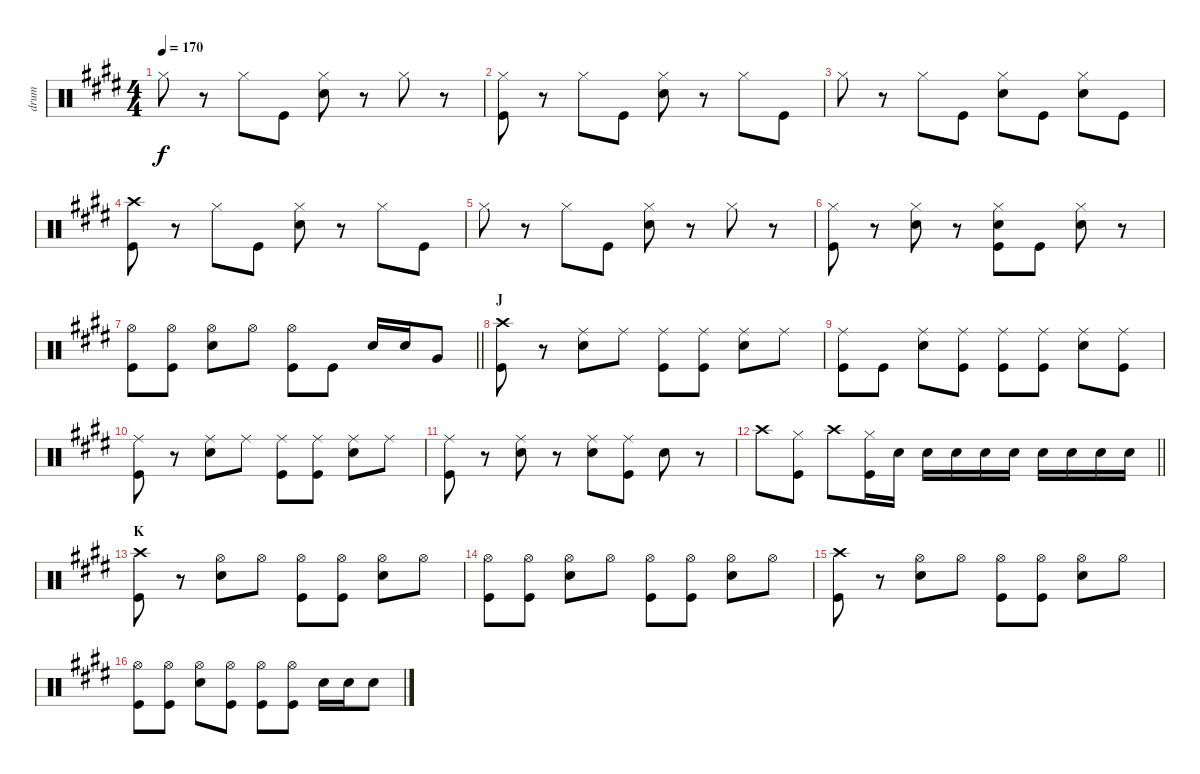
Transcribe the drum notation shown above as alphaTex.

\track ("drum" "drum") {instrument percussion}
\staff {score}
\articulation defaults
\ts (4 4)
\tempo 170
\clef neutral
\ks e "Hi-Hat (closed)".8{dy f}
r.8 "Hi-Hat (closed)".8 "Kick (hit)".8 ("Hi-Hat (closed)" "Snare (hit) 2").8 r.8 "Hi-Hat (closed)".8 r.8 |
("Hi-Hat (closed)" "Kick (hit)").8 r.8 "Hi-Hat (closed)".8 "Kick (hit)".8 ("Hi-Hat (closed)" "Snare (hit) 2").8 r.8 "Hi-Hat (closed)".8 "Kick (hit)".8 |
"Hi-Hat (closed)".8 r.8 "Hi-Hat (closed)".8 "Kick (hit)".8 ("Hi-Hat (closed)" "Snare (hit) 2").8 "Kick (hit)".8 ("Hi-Hat (closed)" "Snare (hit) 2").8 "Kick (hit)".8 |
("Crash high (hit)" "Kick (hit)").8 r.8 "Hi-Hat (closed)".8 "Kick (hit)".8 ("Hi-Hat (closed)" "Snare (hit) 2").8 r.8 "Hi-Hat (closed)".8 "Kick (hit)".8 |
"Hi-Hat (closed)".8 r.8 "Hi-Hat (closed)".8 "Kick (hit)".8 ("Hi-Hat (closed)" "Snare (hit) 2").8 r.8 "Hi-Hat (closed)".8 r.8 |
("Hi-Hat (closed)" "Kick (hit)").8 r.8 ("Hi-Hat (closed)" "Snare (hit) 2").8 r.8 ("Hi-Hat (closed)" "Snare (hit) 2" "Kick (hit)").8 "Kick (hit)".8 ("Hi-Hat (closed)" "Snare (hit) 2").8 r.8 |
\barLineRight lightlight
("Hi-Hat (open)" "Kick (hit)").8 ("Hi-Hat (open)" "Kick (hit)").8 ("Hi-Hat (open)" "Snare (hit) 2").8 "Hi-Hat (open)".8 ("Hi-Hat (open)" "Kick (hit)").8 "Kick (hit)".8 "Snare (hit) 2".16 "Snare (hit) 2".16 "Very Low Tom (hit)".8 |
\section ("" "J")
("Crash high (hit)" "Kick (hit)").8 r.8 ("Ride (middle)" "Snare (hit) 2").8 "Ride (middle)".8 ("Ride (middle)" "Kick (hit)").8 ("Ride (middle)" "Kick (hit)").8 ("Ride (middle)" "Snare (hit) 2").8 "Ride (middle)".8 |
("Ride (middle)" "Kick (hit)").8 "Kick (hit)".8 ("Ride (middle)" "Snare (hit) 2").8 ("Ride (middle)" "Kick (hit)").8 ("Ride (middle)" "Kick (hit)").8 ("Ride (middle)" "Kick (hit)").8 ("Ride (middle)" "Snare (hit) 2").8 ("Ride (middle)" "Kick (hit)").8 |
("Ride (middle)" "Kick (hit)").8 r.8 ("Ride (middle)" "Snare (hit) 2").8 "Ride (middle)".8 ("Ride (middle)" "Kick (hit)").8 ("Ride (middle)" "Kick (hit)").8 ("Ride (middle)" "Snare (hit) 2").8 "Ride (middle)".8 |
("Ride (middle)" "Kick (hit)").8 r.8 ("Ride (middle)" "Snare (hit) 2").8 r.8 ("Ride (middle)" "Snare (hit) 2").8 ("Ride (middle)" "Kick (hit)").8 "Snare (hit) 2".8 r.8 |
\barLineRight lightlight "Crash high (hit)".8
("Hi-Hat (closed)" "Kick (hit)").8 "Crash high (hit)".8 ("Hi-Hat (closed)" "Kick (hit)").16 "Snare (hit) 2".16 "Snare (hit) 2".16 "Snare (hit) 2".16 "Snare (hit) 2".16 "Snare (hit) 2".16 "Snare (hit) 2".16 "Snare (hit) 2".16 "Snare (hit) 2".16 "Snare (hit) 2".16 |
\section ("" "K")
("Crash high (hit)" "Kick (hit)").8 r.8 ("Hi-Hat (open)" "Snare (hit) 2").8 "Hi-Hat (open)".8 ("Hi-Hat (open)" "Kick (hit)").8 ("Hi-Hat (open)" "Kick (hit)").8 ("Hi-Hat (open)" "Snare (hit) 2").8 "Hi-Hat (open)".8 |
("Hi-Hat (open)" "Kick (hit)").8 ("Hi-Hat (open)" "Kick (hit)").8 ("Hi-Hat (open)" "Snare (hit) 2").8 "Hi-Hat (open)".8 ("Hi-Hat (open)" "Kick (hit)").8 ("Hi-Hat (open)" "Kick (hit)").8 ("Hi-Hat (open)" "Snare (hit) 2").8 "Hi-Hat (open)".8 |
("Crash high (hit)" "Kick (hit)").8 r.8 ("Hi-Hat (open)" "Snare (hit) 2").8 "Hi-Hat (open)".8 ("Hi-Hat (open)" "Kick (hit)").8 ("Hi-Hat (open)" "Kick (hit)").8 ("Hi-Hat (open)" "Snare (hit) 2").8 "Hi-Hat (open)".8 |
("Hi-Hat (open)" "Kick (hit)").8 ("Hi-Hat (open)" "Kick (hit)").8 ("Hi-Hat (open)" "Snare (hit) 2").8 ("Hi-Hat (open)" "Kick (hit)").8 ("Hi-Hat (open)" "Kick (hit)").8 ("Hi-Hat (open)" "Kick (hit)").8 "Snare (hit) 2".16 "Snare (hit) 2".16 "Snare (hit) 2".8
